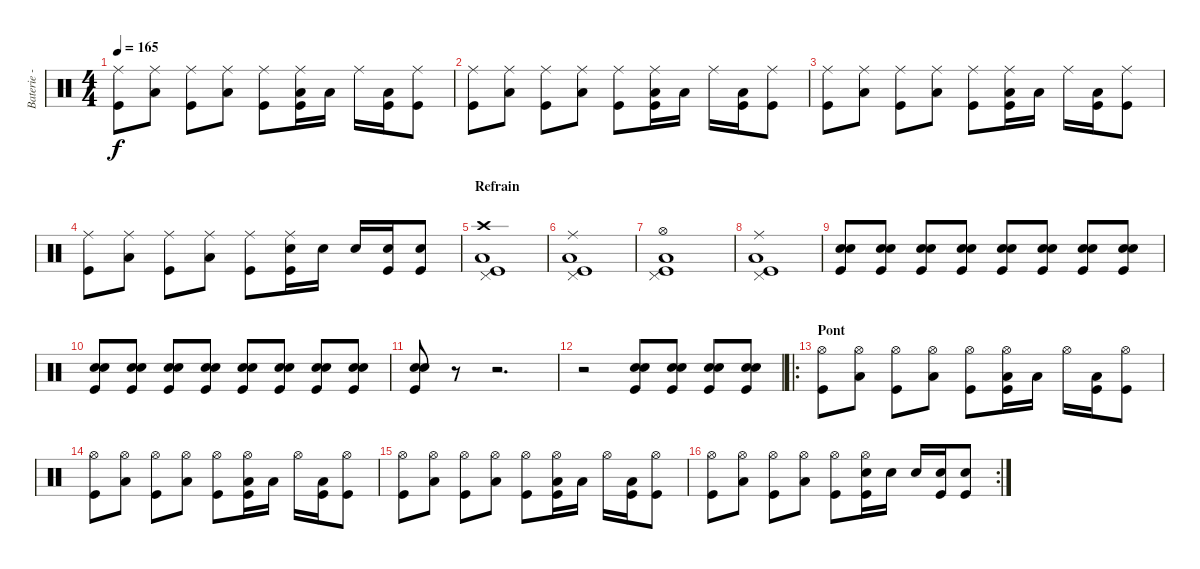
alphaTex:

\track ("Baterie - Alex" "Baterie - ") {instrument percussion}
\staff {score}
\articulation defaults
\ts (4 4)
\tempo 165
\clef neutral
\ks c
("Ride (middle)" "Kick (hit)").8{dy f} ("Ride (middle)" "Low Tom (hit)").8 ("Ride (middle)" "Kick (hit)").8 ("Ride (middle)" "Low Tom (hit)").8 ("Ride (middle)" "Kick (hit)").8 ("Ride (middle)" "Low Tom (hit)" "Kick (hit)").16 "Low Tom (hit)".16 "Ride (middle)".16 ("Low Tom (hit)" "Kick (hit)").16 ("Ride (middle)" "Kick (hit)").8 |
("Ride (middle)" "Kick (hit)").8 ("Ride (middle)" "Low Tom (hit)").8 ("Ride (middle)" "Kick (hit)").8 ("Ride (middle)" "Low Tom (hit)").8 ("Ride (middle)" "Kick (hit)").8 ("Ride (middle)" "Low Tom (hit)" "Kick (hit)").16 "Low Tom (hit)".16 "Ride (middle)".16 ("Low Tom (hit)" "Kick (hit)").16 ("Ride (middle)" "Kick (hit)").8 |
("Ride (middle)" "Kick (hit)").8 ("Ride (middle)" "Low Tom (hit)").8 ("Ride (middle)" "Kick (hit)").8 ("Ride (middle)" "Low Tom (hit)").8 ("Ride (middle)" "Kick (hit)").8 ("Ride (middle)" "Low Tom (hit)" "Kick (hit)").16 "Low Tom (hit)".16 "Ride (middle)".16 ("Low Tom (hit)" "Kick (hit)").16 ("Ride (middle)" "Kick (hit)").8 |
("Ride (middle)" "Kick (hit)").8 ("Ride (middle)" "Low Tom (hit)").8 ("Ride (middle)" "Kick (hit)").8 ("Ride (middle)" "Low Tom (hit)").8 ("Ride (middle)" "Kick (hit)").8 ("Ride (middle)" "Electric Snare (hit)" "Kick (hit)").16 "Electric Snare (hit)".16 "Electric Snare (hit)".16 ("Electric Snare (hit)" "Kick (hit)").16 ("Electric Snare (hit)" "Kick (hit)").8 |
\section ("" "Refrain")
("Crash high (hit)" "Pedal Hi-Hat (hit)" "Low Tom (hit)" "Kick (hit)").1 |
("Ride (middle)" "Pedal Hi-Hat (hit)" "Low Tom (hit)" "Kick (hit)").1 |
("Hi-Hat (open)" "Pedal Hi-Hat (hit)" "Low Tom (hit)" "Kick (hit)").1 |
("Ride (middle)" "Pedal Hi-Hat (hit)" "Low Tom (hit)" "Kick (hit)").1 |
("Snare (hit) 2" "Electric Snare (hit)" "Kick (hit)").8 ("Snare (hit) 2" "Electric Snare (hit)" "Kick (hit)").8 ("Snare (hit) 2" "Electric Snare (hit)" "Kick (hit)").8 ("Snare (hit) 2" "Electric Snare (hit)" "Kick (hit)").8 ("Snare (hit) 2" "Electric Snare (hit)" "Kick (hit)").8 ("Snare (hit) 2" "Electric Snare (hit)" "Kick (hit)").8 ("Snare (hit) 2" "Electric Snare (hit)" "Kick (hit)").8 ("Snare (hit) 2" "Electric Snare (hit)" "Kick (hit)").8 |
("Snare (hit) 2" "Electric Snare (hit)" "Kick (hit)").8 ("Snare (hit) 2" "Electric Snare (hit)" "Kick (hit)").8 ("Snare (hit) 2" "Electric Snare (hit)" "Kick (hit)").8 ("Snare (hit) 2" "Electric Snare (hit)" "Kick (hit)").8 ("Snare (hit) 2" "Electric Snare (hit)" "Kick (hit)").8 ("Snare (hit) 2" "Electric Snare (hit)" "Kick (hit)").8 ("Snare (hit) 2" "Electric Snare (hit)" "Kick (hit)").8 ("Snare (hit) 2" "Electric Snare (hit)" "Kick (hit)").8 |
("Snare (hit) 2" "Electric Snare (hit)" "Kick (hit)").8 r.8 r.2{d} |
r.2 ("Snare (hit) 2" "Electric Snare (hit)" "Kick (hit)").8 ("Snare (hit) 2" "Electric Snare (hit)" "Kick (hit)").8 ("Snare (hit) 2" "Electric Snare (hit)" "Kick (hit)").8 ("Snare (hit) 2" "Electric Snare (hit)" "Kick (hit)").8 |
\ro
\section ("" "Pont")
("Hi-Hat (open)" "Kick (hit)").8 ("Hi-Hat (open)" "Low Tom (hit)").8 ("Hi-Hat (open)" "Kick (hit)").8 ("Hi-Hat (open)" "Low Tom (hit)").8 ("Hi-Hat (open)" "Kick (hit)").8 ("Hi-Hat (open)" "Low Tom (hit)" "Kick (hit)").16 "Low Tom (hit)".16 "Hi-Hat (open)".16 ("Low Tom (hit)" "Kick (hit)").16 ("Hi-Hat (open)" "Kick (hit)").8 |
("Hi-Hat (open)" "Kick (hit)").8 ("Hi-Hat (open)" "Low Tom (hit)").8 ("Hi-Hat (open)" "Kick (hit)").8 ("Hi-Hat (open)" "Low Tom (hit)").8 ("Hi-Hat (open)" "Kick (hit)").8 ("Hi-Hat (open)" "Low Tom (hit)" "Kick (hit)").16 "Low Tom (hit)".16 "Hi-Hat (open)".16 ("Low Tom (hit)" "Kick (hit)").16 ("Hi-Hat (open)" "Kick (hit)").8 |
("Hi-Hat (open)" "Kick (hit)").8 ("Hi-Hat (open)" "Low Tom (hit)").8 ("Hi-Hat (open)" "Kick (hit)").8 ("Hi-Hat (open)" "Low Tom (hit)").8 ("Hi-Hat (open)" "Kick (hit)").8 ("Hi-Hat (open)" "Low Tom (hit)" "Kick (hit)").16 "Low Tom (hit)".16 "Hi-Hat (open)".16 ("Low Tom (hit)" "Kick (hit)").16 ("Hi-Hat (open)" "Kick (hit)").8 |
\rc 2
("Hi-Hat (open)" "Kick (hit)").8 ("Hi-Hat (open)" "Low Tom (hit)").8 ("Hi-Hat (open)" "Kick (hit)").8 ("Hi-Hat (open)" "Low Tom (hit)").8 ("Hi-Hat (open)" "Kick (hit)").8 ("Hi-Hat (open)" "Electric Snare (hit)" "Kick (hit)").16 "Electric Snare (hit)".16 "Electric Snare (hit)".16 ("Electric Snare (hit)" "Kick (hit)").16 ("Electric Snare (hit)" "Kick (hit)").8
